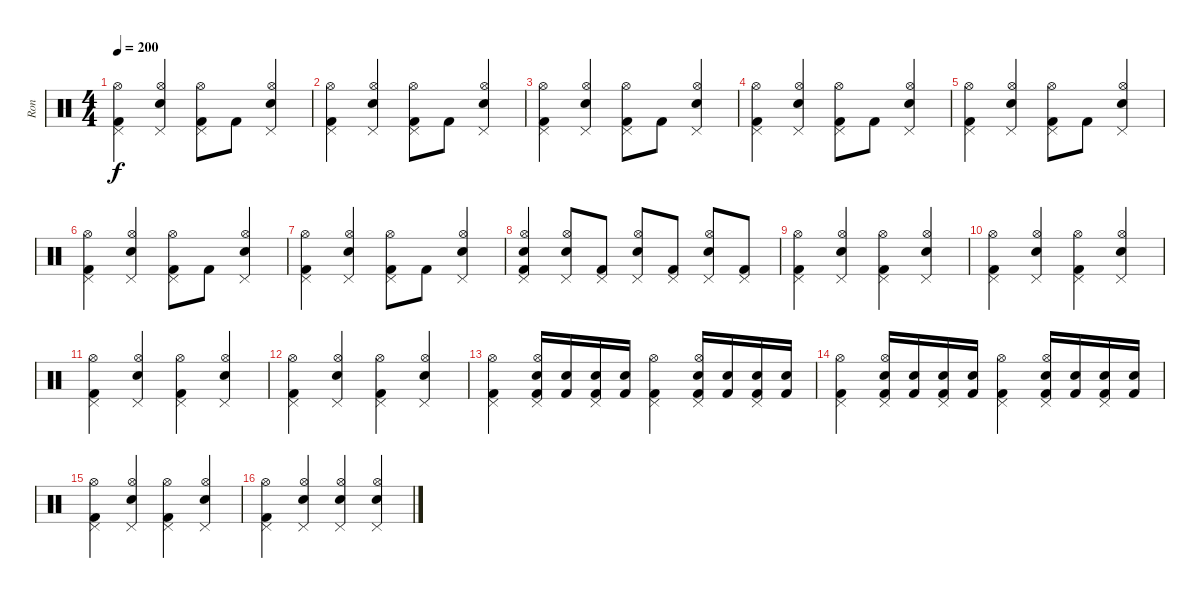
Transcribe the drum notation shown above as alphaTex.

\track ("Ron" "Ron") {instrument percussion}
\staff {score}
\articulation defaults
\ts (4 4)
\tempo 200
\clef neutral
\ks c
("Pedal Hi-Hat (hit)" "Kick (hit) 2" "Hi-Hat (open)").4{dy f} ("Electric Snare (hit)" "Pedal Hi-Hat (hit)" "Hi-Hat (open)").4 ("Pedal Hi-Hat (hit)" "Kick (hit) 2" "Hi-Hat (open)").8 "Kick (hit) 2".8 ("Electric Snare (hit)" "Pedal Hi-Hat (hit)" "Hi-Hat (open)").4 |
("Pedal Hi-Hat (hit)" "Kick (hit) 2" "Hi-Hat (open)").4 ("Electric Snare (hit)" "Pedal Hi-Hat (hit)" "Hi-Hat (open)").4 ("Pedal Hi-Hat (hit)" "Kick (hit) 2" "Hi-Hat (open)").8 "Kick (hit) 2".8 ("Electric Snare (hit)" "Pedal Hi-Hat (hit)" "Hi-Hat (open)").4 |
("Pedal Hi-Hat (hit)" "Kick (hit) 2" "Hi-Hat (open)").4 ("Electric Snare (hit)" "Pedal Hi-Hat (hit)" "Hi-Hat (open)").4 ("Pedal Hi-Hat (hit)" "Kick (hit) 2" "Hi-Hat (open)").8 "Kick (hit) 2".8 ("Electric Snare (hit)" "Pedal Hi-Hat (hit)" "Hi-Hat (open)").4 |
("Pedal Hi-Hat (hit)" "Kick (hit) 2" "Hi-Hat (open)").4 ("Electric Snare (hit)" "Pedal Hi-Hat (hit)" "Hi-Hat (open)").4 ("Pedal Hi-Hat (hit)" "Kick (hit) 2" "Hi-Hat (open)").8 "Kick (hit) 2".8 ("Electric Snare (hit)" "Pedal Hi-Hat (hit)" "Hi-Hat (open)").4 |
("Pedal Hi-Hat (hit)" "Kick (hit) 2" "Hi-Hat (open)").4 ("Electric Snare (hit)" "Pedal Hi-Hat (hit)" "Hi-Hat (open)").4 ("Pedal Hi-Hat (hit)" "Kick (hit) 2" "Hi-Hat (open)").8 "Kick (hit) 2".8 ("Electric Snare (hit)" "Pedal Hi-Hat (hit)" "Hi-Hat (open)").4 |
("Pedal Hi-Hat (hit)" "Kick (hit) 2" "Hi-Hat (open)").4 ("Electric Snare (hit)" "Pedal Hi-Hat (hit)" "Hi-Hat (open)").4 ("Pedal Hi-Hat (hit)" "Kick (hit) 2" "Hi-Hat (open)").8 "Kick (hit) 2".8 ("Electric Snare (hit)" "Pedal Hi-Hat (hit)" "Hi-Hat (open)").4 |
("Pedal Hi-Hat (hit)" "Kick (hit) 2" "Hi-Hat (open)").4 ("Electric Snare (hit)" "Pedal Hi-Hat (hit)" "Hi-Hat (open)").4 ("Pedal Hi-Hat (hit)" "Kick (hit) 2" "Hi-Hat (open)").8 "Kick (hit) 2".8 ("Electric Snare (hit)" "Pedal Hi-Hat (hit)" "Hi-Hat (open)").4 |
("Electric Snare (hit)" "Kick (hit) 2" "Pedal Hi-Hat (hit)" "Hi-Hat (open)").4 ("Electric Snare (hit)" "Pedal Hi-Hat (hit)" "Hi-Hat (open)").8 ("Kick (hit) 2" "Pedal Hi-Hat (hit)").8 ("Electric Snare (hit)" "Pedal Hi-Hat (hit)" "Hi-Hat (open)").8 ("Kick (hit) 2" "Pedal Hi-Hat (hit)").8 ("Electric Snare (hit)" "Pedal Hi-Hat (hit)" "Hi-Hat (open)").8 ("Kick (hit) 2" "Pedal Hi-Hat (hit)").8 |
("Pedal Hi-Hat (hit)" "Kick (hit) 2" "Hi-Hat (open)").4 ("Pedal Hi-Hat (hit)" "Electric Snare (hit)" "Hi-Hat (open)").4 ("Pedal Hi-Hat (hit)" "Kick (hit) 2" "Hi-Hat (open)").4 ("Pedal Hi-Hat (hit)" "Electric Snare (hit)" "Hi-Hat (open)").4 |
("Pedal Hi-Hat (hit)" "Kick (hit) 2" "Hi-Hat (open)").4 ("Pedal Hi-Hat (hit)" "Electric Snare (hit)" "Hi-Hat (open)").4 ("Pedal Hi-Hat (hit)" "Kick (hit) 2" "Hi-Hat (open)").4 ("Pedal Hi-Hat (hit)" "Electric Snare (hit)" "Hi-Hat (open)").4 |
("Pedal Hi-Hat (hit)" "Kick (hit) 2" "Hi-Hat (open)").4 ("Pedal Hi-Hat (hit)" "Electric Snare (hit)" "Hi-Hat (open)").4 ("Pedal Hi-Hat (hit)" "Kick (hit) 2" "Hi-Hat (open)").4 ("Pedal Hi-Hat (hit)" "Electric Snare (hit)" "Hi-Hat (open)").4 |
("Pedal Hi-Hat (hit)" "Kick (hit) 2" "Hi-Hat (open)").4 ("Pedal Hi-Hat (hit)" "Electric Snare (hit)" "Hi-Hat (open)").4 ("Pedal Hi-Hat (hit)" "Kick (hit) 2" "Hi-Hat (open)").4 ("Pedal Hi-Hat (hit)" "Electric Snare (hit)" "Hi-Hat (open)").4 |
("Pedal Hi-Hat (hit)" "Kick (hit) 2" "Hi-Hat (open)").4 ("Pedal Hi-Hat (hit)" "Electric Snare (hit)" "Kick (hit) 2" "Hi-Hat (open)").16 ("Kick (hit) 2" "Electric Snare (hit)").16 ("Pedal Hi-Hat (hit)" "Kick (hit) 2" "Electric Snare (hit)").16 ("Kick (hit) 2" "Electric Snare (hit)").16 ("Pedal Hi-Hat (hit)" "Kick (hit) 2" "Hi-Hat (open)").4 ("Pedal Hi-Hat (hit)" "Electric Snare (hit)" "Kick (hit) 2" "Hi-Hat (open)").16 ("Kick (hit) 2" "Electric Snare (hit)").16 ("Pedal Hi-Hat (hit)" "Kick (hit) 2" "Electric Snare (hit)").16 ("Kick (hit) 2" "Electric Snare (hit)").16 |
("Pedal Hi-Hat (hit)" "Kick (hit) 2" "Hi-Hat (open)").4 ("Pedal Hi-Hat (hit)" "Electric Snare (hit)" "Kick (hit) 2" "Hi-Hat (open)").16 ("Kick (hit) 2" "Electric Snare (hit)").16 ("Pedal Hi-Hat (hit)" "Kick (hit) 2" "Electric Snare (hit)").16 ("Kick (hit) 2" "Electric Snare (hit)").16 ("Pedal Hi-Hat (hit)" "Kick (hit) 2" "Hi-Hat (open)").4 ("Pedal Hi-Hat (hit)" "Electric Snare (hit)" "Kick (hit) 2" "Hi-Hat (open)").16 ("Kick (hit) 2" "Electric Snare (hit)").16 ("Pedal Hi-Hat (hit)" "Kick (hit) 2" "Electric Snare (hit)").16 ("Kick (hit) 2" "Electric Snare (hit)").16 |
("Pedal Hi-Hat (hit)" "Kick (hit) 2" "Hi-Hat (open)").4 ("Pedal Hi-Hat (hit)" "Electric Snare (hit)" "Hi-Hat (open)").4 ("Pedal Hi-Hat (hit)" "Kick (hit) 2" "Hi-Hat (open)").4 ("Pedal Hi-Hat (hit)" "Electric Snare (hit)" "Hi-Hat (open)").4 |
("Pedal Hi-Hat (hit)" "Kick (hit) 2" "Hi-Hat (open)").4 ("Pedal Hi-Hat (hit)" "Electric Snare (hit)" "Hi-Hat (open)").4 ("Pedal Hi-Hat (hit)" "Electric Snare (hit)" "Hi-Hat (open)").4 ("Pedal Hi-Hat (hit)" "Electric Snare (hit)" "Hi-Hat (open)").4
